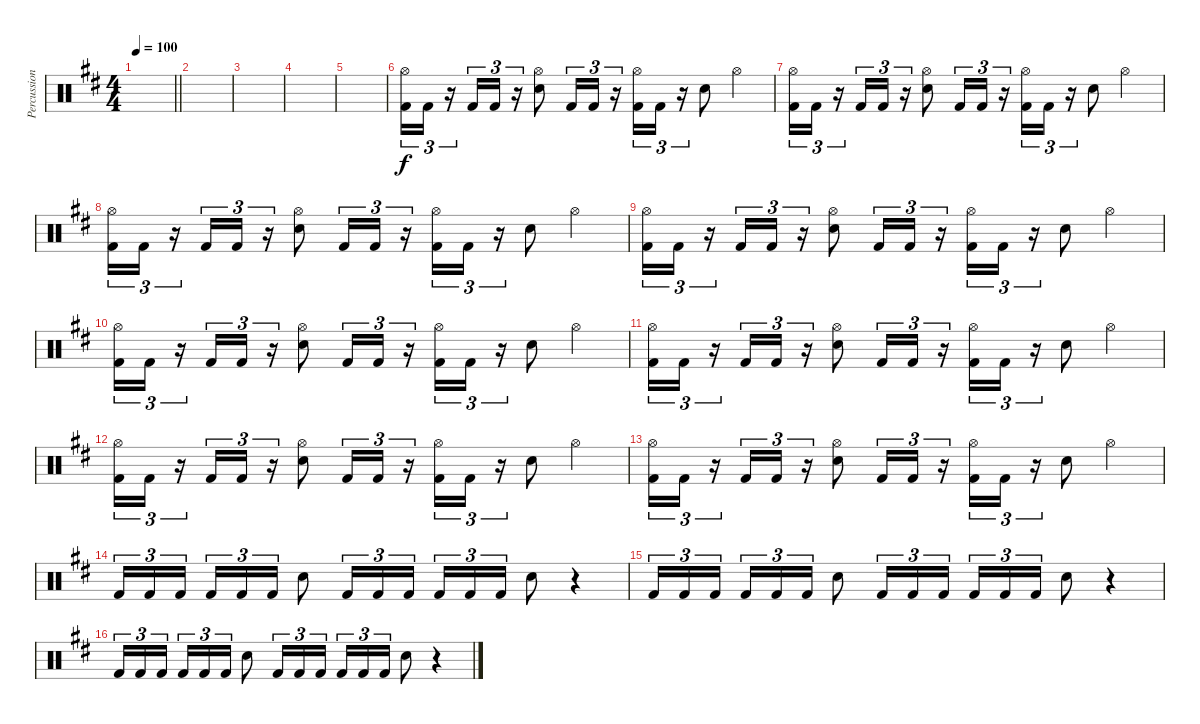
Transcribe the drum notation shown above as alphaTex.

\track ("Percussion" "Percussion") {instrument percussion}
\staff {score}
\articulation defaults
\ts (4 4)
\tempo 100
\clef neutral
\barLineRight lightlight
\ks d
|
|
|
|
|
("Hi-Hat (open)" "Kick (hit) 2").16{tu (3 2)} "Kick (hit) 2".16{tu (3 2)} r.16{tu (3 2)} "Kick (hit) 2".16{tu (3 2)} "Kick (hit) 2".16{tu (3 2)} r.16{tu (3 2)} ("Hi-Hat (open)" "Electric Snare (hit)").8 "Kick (hit) 2".16{tu (3 2)} "Kick (hit) 2".16{tu (3 2)} r.16{tu (3 2)} ("Hi-Hat (open)" "Kick (hit) 2").16{tu (3 2)} "Kick (hit) 2".16{tu (3 2)} r.16{tu (3 2)} "Electric Snare (hit)".8 "Hi-Hat (open)".4 |
("Hi-Hat (open)" "Kick (hit) 2").16{tu (3 2)} "Kick (hit) 2".16{tu (3 2)} r.16{tu (3 2)} "Kick (hit) 2".16{tu (3 2)} "Kick (hit) 2".16{tu (3 2)} r.16{tu (3 2)} ("Hi-Hat (open)" "Electric Snare (hit)").8 "Kick (hit) 2".16{tu (3 2)} "Kick (hit) 2".16{tu (3 2)} r.16{tu (3 2)} ("Hi-Hat (open)" "Kick (hit) 2").16{tu (3 2)} "Kick (hit) 2".16{tu (3 2)} r.16{tu (3 2)} "Electric Snare (hit)".8 "Hi-Hat (open)".4 |
("Hi-Hat (open)" "Kick (hit) 2").16{tu (3 2)} "Kick (hit) 2".16{tu (3 2)} r.16{tu (3 2)} "Kick (hit) 2".16{tu (3 2)} "Kick (hit) 2".16{tu (3 2)} r.16{tu (3 2)} ("Hi-Hat (open)" "Electric Snare (hit)").8 "Kick (hit) 2".16{tu (3 2)} "Kick (hit) 2".16{tu (3 2)} r.16{tu (3 2)} ("Hi-Hat (open)" "Kick (hit) 2").16{tu (3 2)} "Kick (hit) 2".16{tu (3 2)} r.16{tu (3 2)} "Electric Snare (hit)".8 "Hi-Hat (open)".4 |
("Hi-Hat (open)" "Kick (hit) 2").16{tu (3 2)} "Kick (hit) 2".16{tu (3 2)} r.16{tu (3 2)} "Kick (hit) 2".16{tu (3 2)} "Kick (hit) 2".16{tu (3 2)} r.16{tu (3 2)} ("Hi-Hat (open)" "Electric Snare (hit)").8 "Kick (hit) 2".16{tu (3 2)} "Kick (hit) 2".16{tu (3 2)} r.16{tu (3 2)} ("Hi-Hat (open)" "Kick (hit) 2").16{tu (3 2)} "Kick (hit) 2".16{tu (3 2)} r.16{tu (3 2)} "Electric Snare (hit)".8 "Hi-Hat (open)".4 |
("Hi-Hat (open)" "Kick (hit) 2").16{tu (3 2)} "Kick (hit) 2".16{tu (3 2)} r.16{tu (3 2)} "Kick (hit) 2".16{tu (3 2)} "Kick (hit) 2".16{tu (3 2)} r.16{tu (3 2)} ("Hi-Hat (open)" "Electric Snare (hit)").8 "Kick (hit) 2".16{tu (3 2)} "Kick (hit) 2".16{tu (3 2)} r.16{tu (3 2)} ("Hi-Hat (open)" "Kick (hit) 2").16{tu (3 2)} "Kick (hit) 2".16{tu (3 2)} r.16{tu (3 2)} "Electric Snare (hit)".8 "Hi-Hat (open)".4 |
("Hi-Hat (open)" "Kick (hit) 2").16{tu (3 2)} "Kick (hit) 2".16{tu (3 2)} r.16{tu (3 2)} "Kick (hit) 2".16{tu (3 2)} "Kick (hit) 2".16{tu (3 2)} r.16{tu (3 2)} ("Hi-Hat (open)" "Electric Snare (hit)").8 "Kick (hit) 2".16{tu (3 2)} "Kick (hit) 2".16{tu (3 2)} r.16{tu (3 2)} ("Hi-Hat (open)" "Kick (hit) 2").16{tu (3 2)} "Kick (hit) 2".16{tu (3 2)} r.16{tu (3 2)} "Electric Snare (hit)".8 "Hi-Hat (open)".4 |
("Hi-Hat (open)" "Kick (hit) 2").16{tu (3 2)} "Kick (hit) 2".16{tu (3 2)} r.16{tu (3 2)} "Kick (hit) 2".16{tu (3 2)} "Kick (hit) 2".16{tu (3 2)} r.16{tu (3 2)} ("Hi-Hat (open)" "Electric Snare (hit)").8 "Kick (hit) 2".16{tu (3 2)} "Kick (hit) 2".16{tu (3 2)} r.16{tu (3 2)} ("Hi-Hat (open)" "Kick (hit) 2").16{tu (3 2)} "Kick (hit) 2".16{tu (3 2)} r.16{tu (3 2)} "Electric Snare (hit)".8 "Hi-Hat (open)".4 |
("Hi-Hat (open)" "Kick (hit) 2").16{tu (3 2)} "Kick (hit) 2".16{tu (3 2)} r.16{tu (3 2)} "Kick (hit) 2".16{tu (3 2)} "Kick (hit) 2".16{tu (3 2)} r.16{tu (3 2)} ("Hi-Hat (open)" "Electric Snare (hit)").8 "Kick (hit) 2".16{tu (3 2)} "Kick (hit) 2".16{tu (3 2)} r.16{tu (3 2)} ("Hi-Hat (open)" "Kick (hit) 2").16{tu (3 2)} "Kick (hit) 2".16{tu (3 2)} r.16{tu (3 2)} "Electric Snare (hit)".8 "Hi-Hat (open)".4 |
"Kick (hit) 2".16{tu (3 2)} "Kick (hit) 2".16{tu (3 2)} "Kick (hit) 2".16{tu (3 2) beam splitsecondary} "Kick (hit) 2".16{tu (3 2)} "Kick (hit) 2".16{tu (3 2)} "Kick (hit) 2".16{tu (3 2)} "Electric Snare (hit)".8 "Kick (hit) 2".16{tu (3 2)} "Kick (hit) 2".16{tu (3 2)} "Kick (hit) 2".16{tu (3 2)} "Kick (hit) 2".16{tu (3 2)} "Kick (hit) 2".16{tu (3 2)} "Kick (hit) 2".16{tu (3 2)} "Electric Snare (hit)".8 r.4 |
"Kick (hit) 2".16{tu (3 2)} "Kick (hit) 2".16{tu (3 2)} "Kick (hit) 2".16{tu (3 2) beam splitsecondary} "Kick (hit) 2".16{tu (3 2)} "Kick (hit) 2".16{tu (3 2)} "Kick (hit) 2".16{tu (3 2)} "Electric Snare (hit)".8 "Kick (hit) 2".16{tu (3 2)} "Kick (hit) 2".16{tu (3 2)} "Kick (hit) 2".16{tu (3 2)} "Kick (hit) 2".16{tu (3 2)} "Kick (hit) 2".16{tu (3 2)} "Kick (hit) 2".16{tu (3 2)} "Electric Snare (hit)".8 r.4 |
"Kick (hit) 2".16{tu (3 2)} "Kick (hit) 2".16{tu (3 2)} "Kick (hit) 2".16{tu (3 2) beam splitsecondary} "Kick (hit) 2".16{tu (3 2)} "Kick (hit) 2".16{tu (3 2)} "Kick (hit) 2".16{tu (3 2)} "Electric Snare (hit)".8 "Kick (hit) 2".16{tu (3 2)} "Kick (hit) 2".16{tu (3 2)} "Kick (hit) 2".16{tu (3 2)} "Kick (hit) 2".16{tu (3 2)} "Kick (hit) 2".16{tu (3 2)} "Kick (hit) 2".16{tu (3 2)} "Electric Snare (hit)".8 r.4
